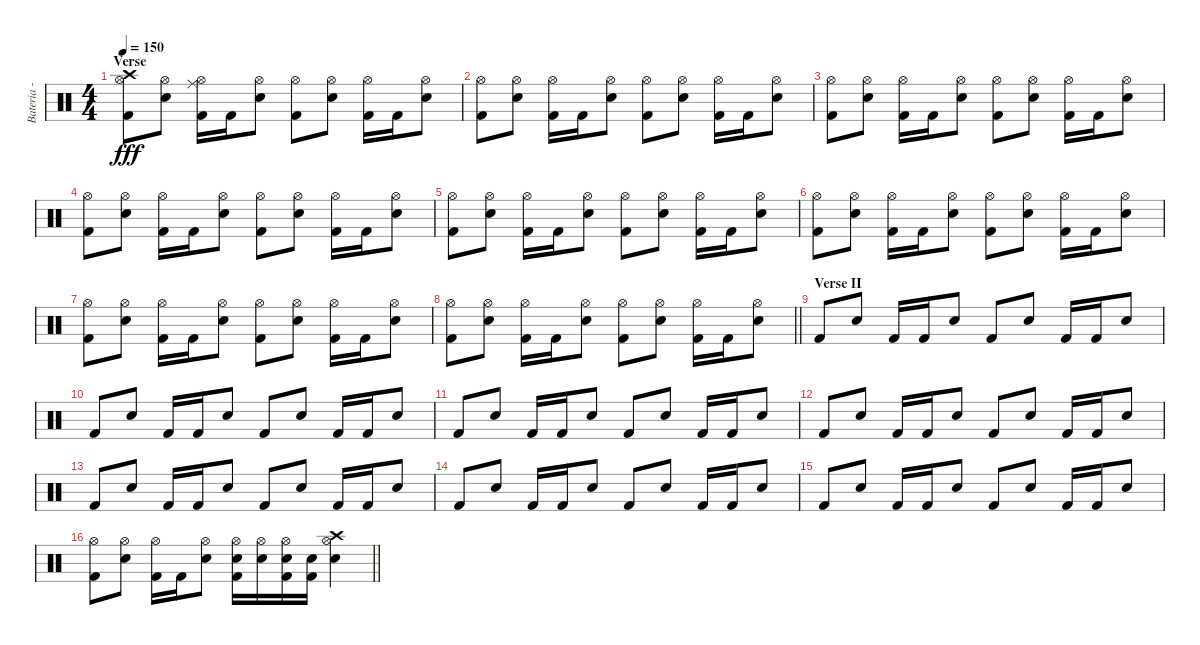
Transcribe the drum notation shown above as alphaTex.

\track ("Bateria - Larzon" "Bateria - ") {instrument percussion}
\staff {score}
\articulation defaults
\ts (4 4)
\section ("" "Verse")
\tempo 150
\clef neutral
\ks c
("Kick (hit) 2" "Crash high (hit)" "Hi-Hat (open)").8{dy fff} ("Hi-Hat (open)" "Snare (hit) 2").8 ("Ride (middle)" "Kick (hit) 2" "Hi-Hat (open)").16 "Kick (hit) 2".16 ("Hi-Hat (open)" "Snare (hit) 2").8 ("Kick (hit) 2" "Hi-Hat (open)").8 ("Hi-Hat (open)" "Snare (hit) 2").8 ("Kick (hit) 2" "Hi-Hat (open)").16 "Kick (hit) 2".16 ("Hi-Hat (open)" "Snare (hit) 2").8 |
("Kick (hit) 2" "Hi-Hat (open)").8 ("Hi-Hat (open)" "Snare (hit) 2").8 ("Kick (hit) 2" "Hi-Hat (open)").16 "Kick (hit) 2".16 ("Hi-Hat (open)" "Snare (hit) 2").8 ("Kick (hit) 2" "Hi-Hat (open)").8 ("Hi-Hat (open)" "Snare (hit) 2").8 ("Kick (hit) 2" "Hi-Hat (open)").16 "Kick (hit) 2".16 ("Hi-Hat (open)" "Snare (hit) 2").8 |
("Kick (hit) 2" "Hi-Hat (open)").8 ("Hi-Hat (open)" "Snare (hit) 2").8 ("Kick (hit) 2" "Hi-Hat (open)").16 "Kick (hit) 2".16 ("Hi-Hat (open)" "Snare (hit) 2").8 ("Kick (hit) 2" "Hi-Hat (open)").8 ("Hi-Hat (open)" "Snare (hit) 2").8 ("Kick (hit) 2" "Hi-Hat (open)").16 "Kick (hit) 2".16 ("Hi-Hat (open)" "Snare (hit) 2").8 |
("Kick (hit) 2" "Hi-Hat (open)").8 ("Hi-Hat (open)" "Snare (hit) 2").8 ("Kick (hit) 2" "Hi-Hat (open)").16 "Kick (hit) 2".16 ("Hi-Hat (open)" "Snare (hit) 2").8 ("Kick (hit) 2" "Hi-Hat (open)").8 ("Hi-Hat (open)" "Snare (hit) 2").8 ("Kick (hit) 2" "Hi-Hat (open)").16 "Kick (hit) 2".16 ("Hi-Hat (open)" "Snare (hit) 2").8 |
("Kick (hit) 2" "Hi-Hat (open)").8 ("Hi-Hat (open)" "Snare (hit) 2").8 ("Kick (hit) 2" "Hi-Hat (open)").16 "Kick (hit) 2".16 ("Hi-Hat (open)" "Snare (hit) 2").8 ("Kick (hit) 2" "Hi-Hat (open)").8 ("Hi-Hat (open)" "Snare (hit) 2").8 ("Kick (hit) 2" "Hi-Hat (open)").16 "Kick (hit) 2".16 ("Hi-Hat (open)" "Snare (hit) 2").8 |
("Kick (hit) 2" "Hi-Hat (open)").8 ("Hi-Hat (open)" "Snare (hit) 2").8 ("Kick (hit) 2" "Hi-Hat (open)").16 "Kick (hit) 2".16 ("Hi-Hat (open)" "Snare (hit) 2").8 ("Kick (hit) 2" "Hi-Hat (open)").8 ("Hi-Hat (open)" "Snare (hit) 2").8 ("Kick (hit) 2" "Hi-Hat (open)").16 "Kick (hit) 2".16 ("Hi-Hat (open)" "Snare (hit) 2").8 |
("Kick (hit) 2" "Hi-Hat (open)").8 ("Hi-Hat (open)" "Snare (hit) 2").8 ("Kick (hit) 2" "Hi-Hat (open)").16 "Kick (hit) 2".16 ("Hi-Hat (open)" "Snare (hit) 2").8 ("Kick (hit) 2" "Hi-Hat (open)").8 ("Hi-Hat (open)" "Snare (hit) 2").8 ("Kick (hit) 2" "Hi-Hat (open)").16 "Kick (hit) 2".16 ("Hi-Hat (open)" "Snare (hit) 2").8 |
\barLineRight lightlight
("Kick (hit) 2" "Hi-Hat (open)").8 ("Hi-Hat (open)" "Snare (hit) 2").8 ("Kick (hit) 2" "Hi-Hat (open)").16 "Kick (hit) 2".16 ("Hi-Hat (open)" "Snare (hit) 2").8 ("Kick (hit) 2" "Hi-Hat (open)").8 ("Hi-Hat (open)" "Snare (hit) 2").8 ("Kick (hit) 2" "Hi-Hat (open)").16 "Kick (hit) 2".16 ("Hi-Hat (open)" "Snare (hit) 2").8 |
\section ("" "Verse II")
"Kick (hit) 2".8 "Snare (hit) 2".8 "Kick (hit) 2".16 "Kick (hit) 2".16 "Snare (hit) 2".8 "Kick (hit) 2".8 "Snare (hit) 2".8 "Kick (hit) 2".16 "Kick (hit) 2".16 "Snare (hit) 2".8 |
"Kick (hit) 2".8 "Snare (hit) 2".8 "Kick (hit) 2".16 "Kick (hit) 2".16 "Snare (hit) 2".8 "Kick (hit) 2".8 "Snare (hit) 2".8 "Kick (hit) 2".16 "Kick (hit) 2".16 "Snare (hit) 2".8 |
"Kick (hit) 2".8 "Snare (hit) 2".8 "Kick (hit) 2".16 "Kick (hit) 2".16 "Snare (hit) 2".8 "Kick (hit) 2".8 "Snare (hit) 2".8 "Kick (hit) 2".16 "Kick (hit) 2".16 "Snare (hit) 2".8 |
"Kick (hit) 2".8 "Snare (hit) 2".8 "Kick (hit) 2".16 "Kick (hit) 2".16 "Snare (hit) 2".8 "Kick (hit) 2".8 "Snare (hit) 2".8 "Kick (hit) 2".16 "Kick (hit) 2".16 "Snare (hit) 2".8 |
"Kick (hit) 2".8 "Snare (hit) 2".8 "Kick (hit) 2".16 "Kick (hit) 2".16 "Snare (hit) 2".8 "Kick (hit) 2".8 "Snare (hit) 2".8 "Kick (hit) 2".16 "Kick (hit) 2".16 "Snare (hit) 2".8 |
"Kick (hit) 2".8 "Snare (hit) 2".8 "Kick (hit) 2".16 "Kick (hit) 2".16 "Snare (hit) 2".8 "Kick (hit) 2".8 "Snare (hit) 2".8 "Kick (hit) 2".16 "Kick (hit) 2".16 "Snare (hit) 2".8 |
"Kick (hit) 2".8 "Snare (hit) 2".8 "Kick (hit) 2".16 "Kick (hit) 2".16 "Snare (hit) 2".8 "Kick (hit) 2".8 "Snare (hit) 2".8 "Kick (hit) 2".16 "Kick (hit) 2".16 "Snare (hit) 2".8 |
\barLineRight lightlight
("Kick (hit) 2" "Hi-Hat (open)").8 ("Hi-Hat (open)" "Snare (hit) 2").8 ("Kick (hit) 2" "Hi-Hat (open)").16 "Kick (hit) 2".16 ("Hi-Hat (open)" "Snare (hit) 2").8 ("Kick (hit) 2" "Hi-Hat (open)" "Snare (hit) 2").16 ("Hi-Hat (open)" "Snare (hit) 2").16 ("Kick (hit) 2" "Hi-Hat (open)" "Snare (hit) 2").16 ("Kick (hit) 2" "Snare (hit) 2").16 ("Crash high (hit)" "Hi-Hat (open)" "Snare (hit) 2").4
